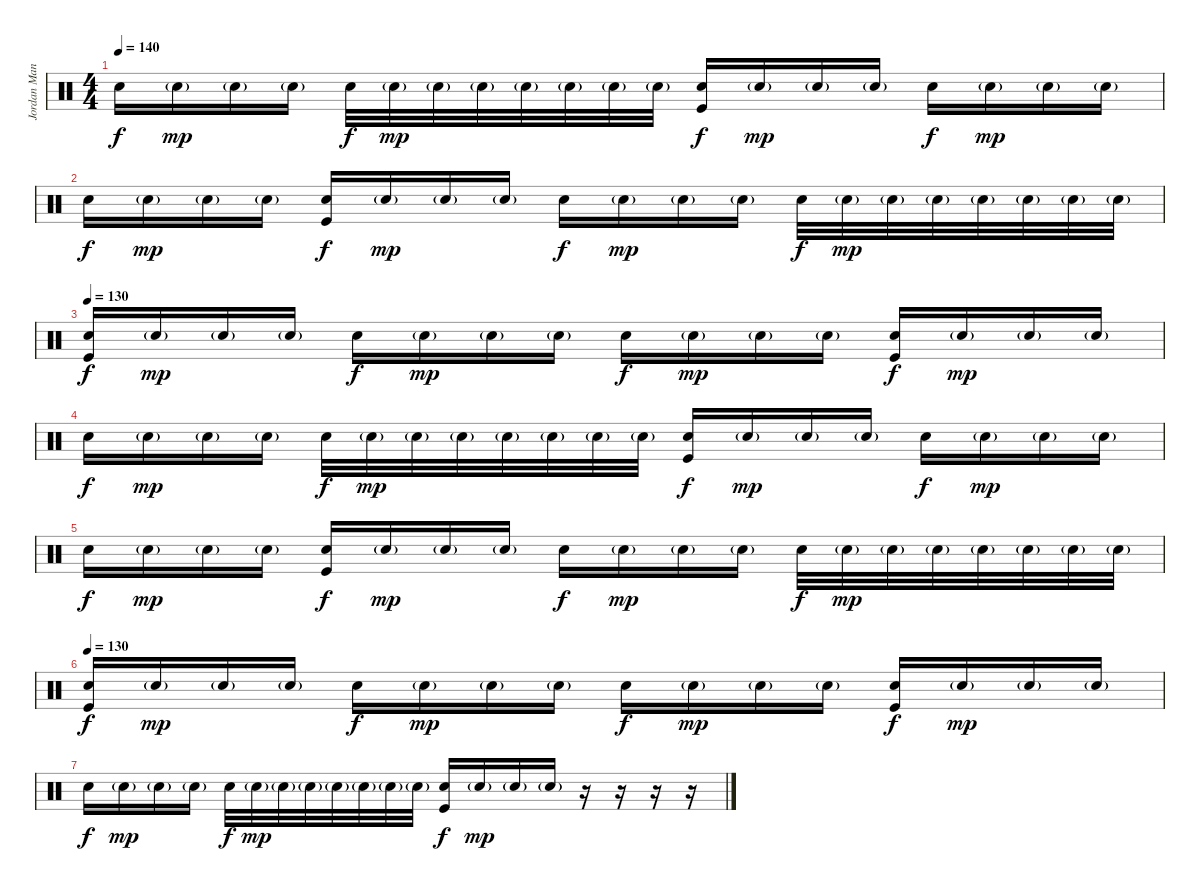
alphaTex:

\track ("Jordan Mancino - Drums" "Jordan Man") {instrument percussion}
\staff {score}
\articulation defaults
\ts (4 4)
\tempo 140
\clef neutral
\ks c "Snare (hit) 2".16{dy f} "Snare (hit) 2"{g}.16{dy mp} "Snare (hit) 2"{g}.16 "Snare (hit) 2"{g}.16 "Snare (hit) 2".32{dy f} "Snare (hit) 2"{g}.32{dy mp} "Snare (hit) 2"{g}.32 "Snare (hit) 2"{g}.32 "Snare (hit) 2"{g}.32 "Snare (hit) 2"{g}.32 "Snare (hit) 2"{g}.32 "Snare (hit) 2"{g}.32
("Snare (hit) 2" "Kick (hit)").16{dy f} "Snare (hit) 2"{g}.16{dy mp} "Snare (hit) 2"{g}.16 "Snare (hit) 2"{g}.16 "Snare (hit) 2".16{dy f} "Snare (hit) 2"{g}.16{dy mp} "Snare (hit) 2"{g}.16 "Snare (hit) 2"{g}.16 |
"Snare (hit) 2".16{dy f} "Snare (hit) 2"{g}.16{dy mp} "Snare (hit) 2"{g}.16 "Snare (hit) 2"{g}.16 ("Snare (hit) 2" "Kick (hit)").16{dy f} "Snare (hit) 2"{g}.16{dy mp} "Snare (hit) 2"{g}.16 "Snare (hit) 2"{g}.16 "Snare (hit) 2".16{dy f} "Snare (hit) 2"{g}.16{dy mp} "Snare (hit) 2"{g}.16 "Snare (hit) 2"{g}.16 "Snare (hit) 2".32{dy f} "Snare (hit) 2"{g}.32{dy mp} "Snare (hit) 2"{g}.32 "Snare (hit) 2"{g}.32 "Snare (hit) 2"{g}.32 "Snare (hit) 2"{g}.32 "Snare (hit) 2"{g}.32 "Snare (hit) 2"{g}.32 |
\tempo 130
("Snare (hit) 2" "Kick (hit)").16{dy f} "Snare (hit) 2"{g}.16{dy mp} "Snare (hit) 2"{g}.16 "Snare (hit) 2"{g}.16 "Snare (hit) 2".16{dy f} "Snare (hit) 2"{g}.16{dy mp} "Snare (hit) 2"{g}.16 "Snare (hit) 2"{g}.16 "Snare (hit) 2".16{dy f} "Snare (hit) 2"{g}.16{dy mp} "Snare (hit) 2"{g}.16 "Snare (hit) 2"{g}.16 ("Snare (hit) 2" "Kick (hit)").16{dy f} "Snare (hit) 2"{g}.16{dy mp} "Snare (hit) 2"{g}.16 "Snare (hit) 2"{g}.16 |
"Snare (hit) 2".16{dy f} "Snare (hit) 2"{g}.16{dy mp} "Snare (hit) 2"{g}.16 "Snare (hit) 2"{g}.16 "Snare (hit) 2".32{dy f} "Snare (hit) 2"{g}.32{dy mp} "Snare (hit) 2"{g}.32 "Snare (hit) 2"{g}.32 "Snare (hit) 2"{g}.32 "Snare (hit) 2"{g}.32 "Snare (hit) 2"{g}.32 "Snare (hit) 2"{g}.32 ("Snare (hit) 2" "Kick (hit)").16{dy f} "Snare (hit) 2"{g}.16{dy mp} "Snare (hit) 2"{g}.16 "Snare (hit) 2"{g}.16 "Snare (hit) 2".16{dy f} "Snare (hit) 2"{g}.16{dy mp} "Snare (hit) 2"{g}.16 "Snare (hit) 2"{g}.16 |
"Snare (hit) 2".16{dy f} "Snare (hit) 2"{g}.16{dy mp} "Snare (hit) 2"{g}.16 "Snare (hit) 2"{g}.16 ("Snare (hit) 2" "Kick (hit)").16{dy f} "Snare (hit) 2"{g}.16{dy mp} "Snare (hit) 2"{g}.16 "Snare (hit) 2"{g}.16 "Snare (hit) 2".16{dy f} "Snare (hit) 2"{g}.16{dy mp} "Snare (hit) 2"{g}.16 "Snare (hit) 2"{g}.16 "Snare (hit) 2".32{dy f} "Snare (hit) 2"{g}.32{dy mp} "Snare (hit) 2"{g}.32 "Snare (hit) 2"{g}.32 "Snare (hit) 2"{g}.32 "Snare (hit) 2"{g}.32 "Snare (hit) 2"{g}.32 "Snare (hit) 2"{g}.32 |
\tempo 130
("Snare (hit) 2" "Kick (hit)").16{dy f} "Snare (hit) 2"{g}.16{dy mp} "Snare (hit) 2"{g}.16 "Snare (hit) 2"{g}.16 "Snare (hit) 2".16{dy f} "Snare (hit) 2"{g}.16{dy mp} "Snare (hit) 2"{g}.16 "Snare (hit) 2"{g}.16 "Snare (hit) 2".16{dy f} "Snare (hit) 2"{g}.16{dy mp} "Snare (hit) 2"{g}.16 "Snare (hit) 2"{g}.16 ("Snare (hit) 2" "Kick (hit)").16{dy f} "Snare (hit) 2"{g}.16{dy mp} "Snare (hit) 2"{g}.16 "Snare (hit) 2"{g}.16 |
"Snare (hit) 2".16{dy f} "Snare (hit) 2"{g}.16{dy mp} "Snare (hit) 2"{g}.16 "Snare (hit) 2"{g}.16 "Snare (hit) 2".32{dy f} "Snare (hit) 2"{g}.32{dy mp} "Snare (hit) 2"{g}.32 "Snare (hit) 2"{g}.32 "Snare (hit) 2"{g}.32 "Snare (hit) 2"{g}.32 "Snare (hit) 2"{g}.32 "Snare (hit) 2"{g}.32 ("Snare (hit) 2" "Kick (hit)").16{dy f} "Snare (hit) 2"{g}.16{dy mp} "Snare (hit) 2"{g}.16 "Snare (hit) 2"{g}.16 r.16 r.16 r.16 r.16
